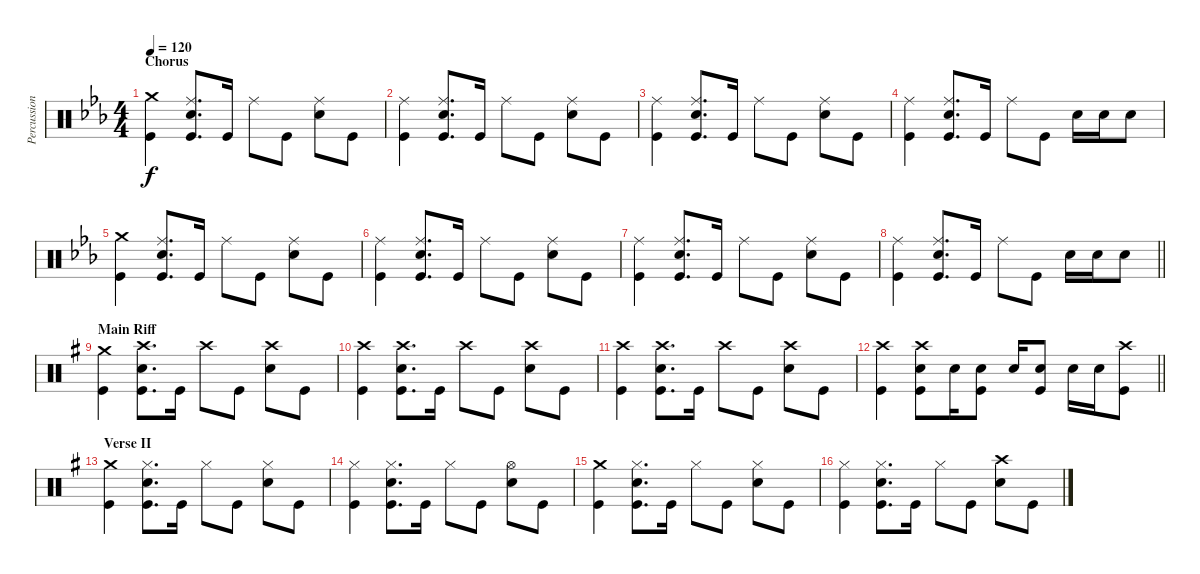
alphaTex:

\track ("Percussion" "Percussion") {instrument percussion}
\staff {score}
\articulation defaults
\ts (4 4)
\section ("" "Chorus")
\tempo 120
\clef neutral
\ks eb
("Crash medium (hit)" "Kick (hit)").4{dy f} ("Ride (middle)" "Electric Snare (hit)" "Kick (hit)").8{d} "Kick (hit)".16 "Ride (middle)".8 "Kick (hit)".8 ("Ride (middle)" "Electric Snare (hit)").8 "Kick (hit)".8 |
("Ride (middle)" "Kick (hit)").4 ("Ride (middle)" "Electric Snare (hit)" "Kick (hit)").8{d} "Kick (hit)".16 "Ride (middle)".8 "Kick (hit)".8 ("Ride (middle)" "Electric Snare (hit)").8 "Kick (hit)".8 |
("Ride (middle)" "Kick (hit)").4 ("Ride (middle)" "Electric Snare (hit)" "Kick (hit)").8{d} "Kick (hit)".16 "Ride (middle)".8 "Kick (hit)".8 ("Ride (middle)" "Electric Snare (hit)").8 "Kick (hit)".8 |
("Ride (middle)" "Kick (hit)").4 ("Ride (middle)" "Electric Snare (hit)" "Kick (hit)").8{d} "Kick (hit)".16 "Ride (middle)".8 "Kick (hit)".8 "Electric Snare (hit)".16 "Electric Snare (hit)".16 "Electric Snare (hit)".8 |
("Crash medium (hit)" "Kick (hit)").4 ("Ride (middle)" "Electric Snare (hit)" "Kick (hit)").8{d} "Kick (hit)".16 "Ride (middle)".8 "Kick (hit)".8 ("Ride (middle)" "Electric Snare (hit)").8 "Kick (hit)".8 |
("Ride (middle)" "Kick (hit)").4 ("Ride (middle)" "Electric Snare (hit)" "Kick (hit)").8{d} "Kick (hit)".16 "Ride (middle)".8 "Kick (hit)".8 ("Ride (middle)" "Electric Snare (hit)").8 "Kick (hit)".8 |
("Ride (middle)" "Kick (hit)").4 ("Ride (middle)" "Electric Snare (hit)" "Kick (hit)").8{d} "Kick (hit)".16 "Ride (middle)".8 "Kick (hit)".8 ("Ride (middle)" "Electric Snare (hit)").8 "Kick (hit)".8 |
\barLineRight lightlight
("Ride (middle)" "Kick (hit)").4 ("Ride (middle)" "Electric Snare (hit)" "Kick (hit)").8{d} "Kick (hit)".16 "Ride (middle)".8 "Kick (hit)".8 "Electric Snare (hit)".16 "Electric Snare (hit)".16 "Electric Snare (hit)".8 |
\section ("" "Main Riff")
\ks g
("Crash medium (hit)" "Kick (hit)").4 ("Crash high (hit)" "Electric Snare (hit)" "Kick (hit)").8{d} "Kick (hit)".16 "Crash high (hit)".8 "Kick (hit)".8 ("Crash high (hit)" "Electric Snare (hit)").8 "Kick (hit)".8 |
("Crash high (hit)" "Kick (hit)").4 ("Crash high (hit)" "Electric Snare (hit)" "Kick (hit)").8{d} "Kick (hit)".16 "Crash high (hit)".8 "Kick (hit)".8 ("Crash high (hit)" "Electric Snare (hit)").8 "Kick (hit)".8 |
("Crash high (hit)" "Kick (hit)").4 ("Crash high (hit)" "Electric Snare (hit)" "Kick (hit)").8{d} "Kick (hit)".16 "Crash high (hit)".8 "Kick (hit)".8 ("Crash high (hit)" "Electric Snare (hit)").8 "Kick (hit)".8 |
\barLineRight lightlight
("Crash high (hit)" "Kick (hit)").4 ("Crash high (hit)" "Electric Snare (hit)" "Kick (hit)").8 "Electric Snare (hit)".16 ("Electric Snare (hit)" "Kick (hit)").8 "Electric Snare (hit)".16 ("Electric Snare (hit)" "Kick (hit)").8 "Electric Snare (hit)".16 "Electric Snare (hit)".16 ("Crash high (hit)" "Kick (hit)").8 |
\section ("" "Verse II")
("Crash medium (hit)" "Kick (hit)").4 ("Hi-Hat (closed)" "Electric Snare (hit)" "Kick (hit)").8{d} "Kick (hit)".16 "Hi-Hat (closed)".8 "Kick (hit)".8 ("Hi-Hat (closed)" "Electric Snare (hit)").8 "Kick (hit)".8 |
("Hi-Hat (closed)" "Kick (hit)").4 ("Hi-Hat (closed)" "Electric Snare (hit)" "Kick (hit)").8{d} "Kick (hit)".16 "Hi-Hat (closed)".8 "Kick (hit)".8 ("Hi-Hat (open)" "Electric Snare (hit)").8 "Kick (hit)".8 |
("Crash medium (hit)" "Kick (hit)").4 ("Hi-Hat (closed)" "Electric Snare (hit)" "Kick (hit)").8{d} "Kick (hit)".16 "Hi-Hat (closed)".8 "Kick (hit)".8 ("Hi-Hat (closed)" "Electric Snare (hit)").8 "Kick (hit)".8 |
("Hi-Hat (closed)" "Kick (hit)").4 ("Hi-Hat (closed)" "Electric Snare (hit)" "Kick (hit)").8{d} "Kick (hit)".16 "Hi-Hat (closed)".8 "Kick (hit)".8 ("Crash high (hit)" "Electric Snare (hit)").8 "Kick (hit)".8
